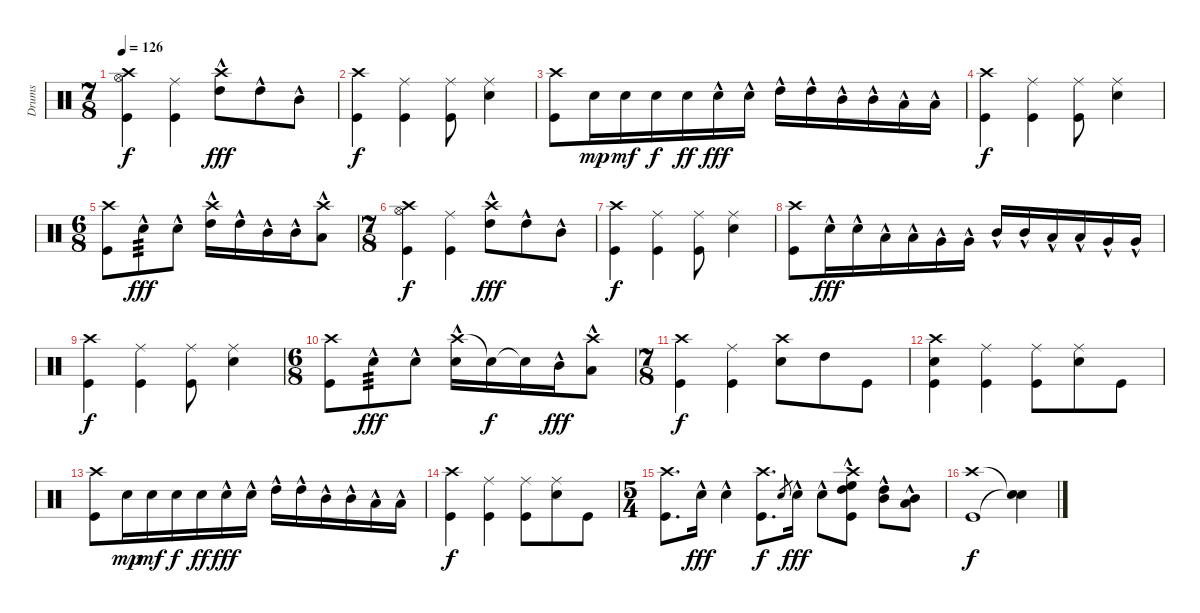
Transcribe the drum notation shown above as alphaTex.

\track ("Drums" "Drums") {instrument percussion}
\staff {score}
\articulation defaults
\ts (7 8)
\tempo 126
\clef neutral
\ks c
("Crash high (hit)" "Hi-Hat (open)" "Kick (hit)").4{dy f} ("Ride (middle)" "Kick (hit)").4 ("Crash high (hit)" "High Tom (hit)"{hac}).8{dy fff} "High Tom (hit)"{hac}.8 "Mid Tom (hit)"{hac}.8 |
("Crash high (hit)" "Kick (hit)").4{dy f} ("Ride (middle)" "Kick (hit)").4 ("Ride (middle)" "Kick (hit)").8 ("Ride (middle)" "Snare (hit) 2").4 |
("Crash high (hit)" "Kick (hit)").8 "Snare (hit) 2".16{dy mp} "Snare (hit) 2".16{dy mf} "Snare (hit) 2".16{dy f} "Snare (hit) 2".16{dy ff} "Snare (hit) 2"{hac}.16{dy fff} "Snare (hit) 2"{hac}.16 "High Tom (hit)"{hac}.16 "High Tom (hit)"{hac}.16 "Mid Tom (hit)"{hac}.16 "Mid Tom (hit)"{hac}.16 "Low Tom (hit)"{hac}.16 "Low Tom (hit)"{hac}.16 |
("Crash high (hit)" "Kick (hit)").4{dy f} ("Ride (middle)" "Kick (hit)").4 ("Ride (middle)" "Kick (hit)").8 ("Ride (middle)" "Snare (hit) 2").4 |
\ts (6 8)
("Crash high (hit)" "Kick (hit)").8 "Snare (hit) 2"{hac}.8{tp 3 dy fff} "Snare (hit) 2"{hac}.8 ("Crash high (hit)" "High Tom (hit)"{hac}).16 "High Tom (hit)"{hac}.16 "Mid Tom (hit)"{hac}.16 "Mid Tom (hit)"{hac}.16 ("Crash high (hit)" "Low Tom (hit)"{hac}).8 |
\ts (7 8)
("Crash high (hit)" "Hi-Hat (open)" "Kick (hit)").4{dy f} ("Ride (middle)" "Kick (hit)").4 ("Crash high (hit)" "High Tom (hit)"{hac}).8{dy fff} "High Tom (hit)"{hac}.8 "Mid Tom (hit)"{hac}.8 |
("Crash high (hit)" "Kick (hit)").4{dy f} ("Ride (middle)" "Kick (hit)").4 ("Ride (middle)" "Kick (hit)").8 ("Ride (middle)" "Snare (hit) 2").4 |
("Crash high (hit)" "Kick (hit)").8 "Snare (hit) 2"{hac}.16{dy fff} "Snare (hit) 2"{hac}.16 "Low Tom (hit)"{hac}.16 "Low Tom (hit)"{hac}.16 "Very Low Tom (hit)"{hac}.16 "Very Low Tom (hit)"{hac}.16 "Mid Tom (hit)"{hac}.16 "Mid Tom (hit)"{hac}.16 "Low Tom (hit)"{hac}.16 "Low Tom (hit)"{hac}.16 "Very Low Tom (hit)"{hac}.16 "Very Low Tom (hit)"{hac}.16 |
("Crash high (hit)" "Kick (hit)").4{dy f} ("Ride (middle)" "Kick (hit)").4 ("Ride (middle)" "Kick (hit)").8 ("Ride (middle)" "Snare (hit) 2").4 |
\ts (6 8)
("Crash high (hit)" "Kick (hit)").8 "Snare (hit) 2"{hac}.8{tp 3 dy fff} "Snare (hit) 2"{hac}.8 ("Crash high (hit)" "Snare (hit) 2"{hac}).16 "Snare (hit) 2"{t}.16{dy f} "Snare (hit) 2"{t}.16 "Mid Tom (hit)"{hac}.16{dy fff} ("Crash high (hit)" "Low Tom (hit)"{hac}).8 |
\ts (7 8)
("Crash high (hit)" "Kick (hit)").4{dy f} ("Ride (middle)" "Kick (hit)").4 ("Crash high (hit)" "Snare (hit) 2").8 "High Tom (hit)".8 "Kick (hit)".8 |
("Crash high (hit)" "Snare (hit) 2" "Kick (hit)").4 ("Ride (middle)" "Kick (hit)").4 ("Ride (middle)" "Kick (hit)").8 ("Ride (middle)" "Snare (hit) 2").8 "Kick (hit)".8 |
("Crash high (hit)" "Kick (hit)").8 "Snare (hit) 2".16{dy mp} "Snare (hit) 2".16{dy mf} "Snare (hit) 2".16{dy f} "Snare (hit) 2".16{dy ff} "Snare (hit) 2"{hac}.16{dy fff} "Snare (hit) 2"{hac}.16 "High Tom (hit)"{hac}.16 "High Tom (hit)"{hac}.16 "Mid Tom (hit)"{hac}.16 "Mid Tom (hit)"{hac}.16 "Low Tom (hit)"{hac}.16 "Low Tom (hit)"{hac}.16 |
("Crash high (hit)" "Kick (hit)").4{dy f} ("Ride (middle)" "Kick (hit)").4 ("Ride (middle)" "Kick (hit)").8 ("Ride (middle)" "Snare (hit) 2").8 "Kick (hit)".8 |
\ts (5 4)
("Crash high (hit)" "Kick (hit)").8{d} "Snare (hit) 2"{hac}.16{dy fff} "Snare (hit) 2"{hac}.4 ("Crash high (hit)" "Kick (hit)").8{d dy f} "Snare (hit) 2".8{gr} "Snare (hit) 2"{hac}.16{dy fff} "Snare (hit) 2"{hac}.8 ("Crash high (hit)"{hac} "High Tom (hit)"{hac} "High Floor Tom (hit)"{hac} "Kick (hit)"{hac}).8 ("Mid Tom (hit)"{hac} "High Tom (hit)"{hac}).8 ("Low Tom (hit)"{hac} "Mid Tom (hit)"{hac}).8 |
("Crash high (hit)" "Kick (hit)").1{dy f} ("Snare (hit)"{t} "Snare (hit)"{t}).4
